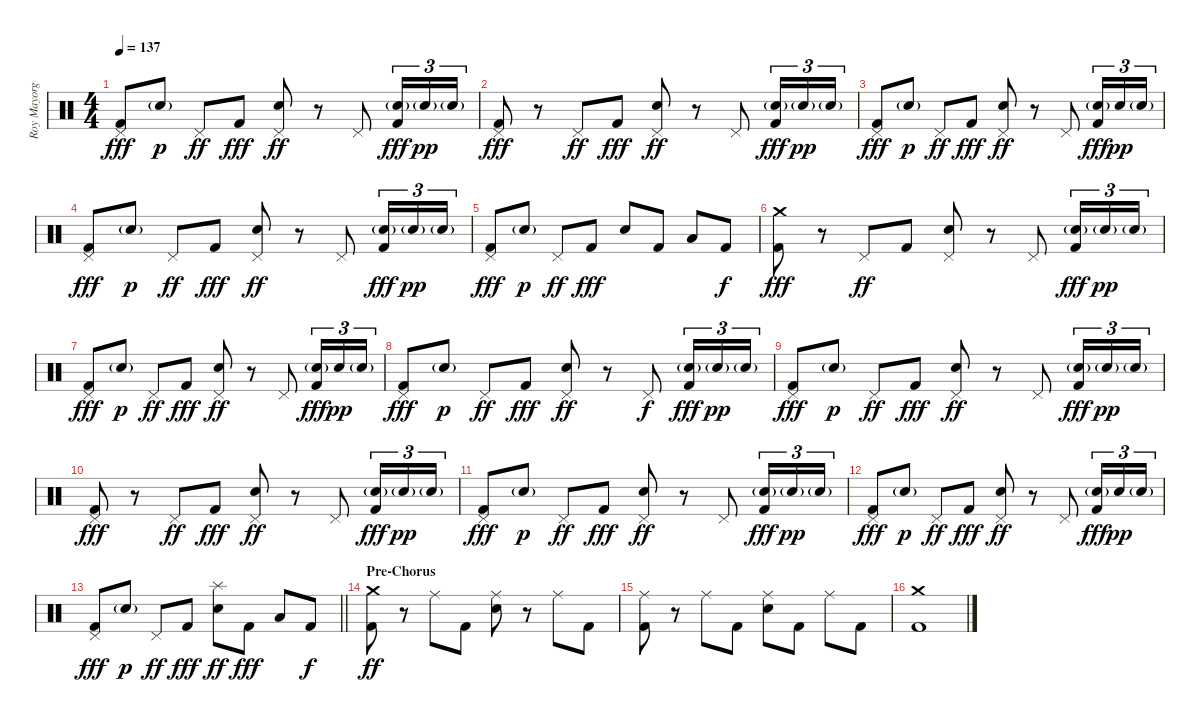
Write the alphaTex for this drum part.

\track ("Roy Mayorga (Drums)" "Roy Mayorg") {instrument percussion}
\staff {score}
\articulation defaults
\ts (4 4)
\tempo 137
\clef neutral
\ks c
("Pedal Hi-Hat (hit)" "Kick (hit) 2").8{dy fff} "Electric Snare (hit)"{g}.8{dy p} "Pedal Hi-Hat (hit)".8{dy ff} "Kick (hit) 2".8{dy fff} ("Pedal Hi-Hat (hit)" "Electric Snare (hit)").8{dy ff} r.8 "Pedal Hi-Hat (hit)".8 ("Electric Snare (hit)"{g} "Kick (hit) 2").16{tu (3 2) dy fff} "Electric Snare (hit)"{g}.16{tu (3 2) dy pp} "Electric Snare (hit)"{g}.16{tu (3 2)} |
("Pedal Hi-Hat (hit)" "Kick (hit) 2").8{dy fff} r.8 "Pedal Hi-Hat (hit)".8{dy ff} "Kick (hit) 2".8{dy fff} ("Pedal Hi-Hat (hit)" "Electric Snare (hit)").8{dy ff} r.8 "Pedal Hi-Hat (hit)".8 ("Electric Snare (hit)"{g} "Kick (hit) 2").16{tu (3 2) dy fff} "Electric Snare (hit)"{g}.16{tu (3 2) dy pp} "Electric Snare (hit)"{g}.16{tu (3 2)} |
("Pedal Hi-Hat (hit)" "Kick (hit) 2").8{dy fff} "Electric Snare (hit)"{g}.8{dy p} "Pedal Hi-Hat (hit)".8{dy ff} "Kick (hit) 2".8{dy fff} ("Pedal Hi-Hat (hit)" "Electric Snare (hit)").8{dy ff} r.8 "Pedal Hi-Hat (hit)".8 ("Electric Snare (hit)"{g} "Kick (hit) 2").16{tu (3 2) dy fff} "Electric Snare (hit)".16{tu (3 2) dy pp} "Electric Snare (hit)"{g}.16{tu (3 2)} |
("Pedal Hi-Hat (hit)" "Kick (hit) 2").8{dy fff} "Electric Snare (hit)"{g}.8{dy p} "Pedal Hi-Hat (hit)".8{dy ff} "Kick (hit) 2".8{dy fff} ("Pedal Hi-Hat (hit)" "Electric Snare (hit)").8{dy ff} r.8 "Pedal Hi-Hat (hit)".8 ("Electric Snare (hit)"{g} "Kick (hit) 2").16{tu (3 2) dy fff} "Electric Snare (hit)"{g}.16{tu (3 2) dy pp} "Electric Snare (hit)"{g}.16{tu (3 2)} |
("Pedal Hi-Hat (hit)" "Kick (hit) 2").8{dy fff} "Electric Snare (hit)"{g}.8{dy p} "Pedal Hi-Hat (hit)".8{dy ff} "Kick (hit) 2".8{dy fff} "Electric Snare (hit)".8 "Kick (hit) 2".8 "Low Tom (hit)".8 "Kick (hit) 2".8{dy f} |
("Crash medium (hit)" "Kick (hit) 2").8{dy fff} r.8 "Pedal Hi-Hat (hit)".8{dy ff} "Kick (hit) 2".8 ("Pedal Hi-Hat (hit)" "Electric Snare (hit)").8 r.8 "Pedal Hi-Hat (hit)".8 ("Electric Snare (hit)"{g} "Kick (hit) 2").16{tu (3 2) dy fff} "Electric Snare (hit)"{g}.16{tu (3 2) dy pp} "Electric Snare (hit)"{g}.16{tu (3 2)} |
("Pedal Hi-Hat (hit)" "Kick (hit) 2").8{dy fff} "Electric Snare (hit)"{g}.8{dy p} "Pedal Hi-Hat (hit)".8{dy ff} "Kick (hit) 2".8{dy fff} ("Pedal Hi-Hat (hit)" "Electric Snare (hit)").8{dy ff} r.8 "Pedal Hi-Hat (hit)".8 ("Electric Snare (hit)"{g} "Kick (hit) 2").16{tu (3 2) dy fff} "Electric Snare (hit)".16{tu (3 2) dy pp} "Electric Snare (hit)"{g}.16{tu (3 2)} |
("Pedal Hi-Hat (hit)" "Kick (hit) 2").8{dy fff} "Electric Snare (hit)"{g}.8{dy p} "Pedal Hi-Hat (hit)".8{dy ff} "Kick (hit) 2".8{dy fff} ("Pedal Hi-Hat (hit)" "Electric Snare (hit)").8{dy ff} r.8 "Pedal Hi-Hat (hit)".8{dy f} ("Electric Snare (hit)"{g} "Kick (hit) 2").16{tu (3 2) dy fff} "Electric Snare (hit)"{g}.16{tu (3 2) dy pp} "Electric Snare (hit)"{g}.16{tu (3 2)} |
("Pedal Hi-Hat (hit)" "Kick (hit) 2").8{dy fff} "Electric Snare (hit)"{g}.8{dy p} "Pedal Hi-Hat (hit)".8{dy ff} "Kick (hit) 2".8{dy fff} ("Pedal Hi-Hat (hit)" "Electric Snare (hit)").8{dy ff} r.8 "Pedal Hi-Hat (hit)".8 ("Electric Snare (hit)"{g} "Kick (hit) 2").16{tu (3 2) dy fff} "Electric Snare (hit)"{g}.16{tu (3 2) dy pp} "Electric Snare (hit)"{g}.16{tu (3 2)} |
("Pedal Hi-Hat (hit)" "Kick (hit) 2").8{dy fff} r.8 "Pedal Hi-Hat (hit)".8{dy ff} "Kick (hit) 2".8{dy fff} ("Pedal Hi-Hat (hit)" "Electric Snare (hit)").8{dy ff} r.8 "Pedal Hi-Hat (hit)".8 ("Electric Snare (hit)"{g} "Kick (hit) 2").16{tu (3 2) dy fff} "Electric Snare (hit)"{g}.16{tu (3 2) dy pp} "Electric Snare (hit)"{g}.16{tu (3 2)} |
("Pedal Hi-Hat (hit)" "Kick (hit) 2").8{dy fff} "Electric Snare (hit)"{g}.8{dy p} "Pedal Hi-Hat (hit)".8{dy ff} "Kick (hit) 2".8{dy fff} ("Pedal Hi-Hat (hit)" "Electric Snare (hit)").8{dy ff} r.8 "Pedal Hi-Hat (hit)".8 ("Electric Snare (hit)"{g} "Kick (hit) 2").16{tu (3 2) dy fff} "Electric Snare (hit)"{g}.16{tu (3 2) dy pp} "Electric Snare (hit)"{g}.16{tu (3 2)} |
("Pedal Hi-Hat (hit)" "Kick (hit) 2").8{dy fff} "Electric Snare (hit)"{g}.8{dy p} "Pedal Hi-Hat (hit)".8{dy ff} "Kick (hit) 2".8{dy fff} ("Pedal Hi-Hat (hit)" "Electric Snare (hit)").8{dy ff} r.8 "Pedal Hi-Hat (hit)".8 ("Electric Snare (hit)"{g} "Kick (hit) 2").16{tu (3 2) dy fff} "Electric Snare (hit)".16{tu (3 2) dy pp} "Electric Snare (hit)"{g}.16{tu (3 2)} |
\barLineRight lightlight
("Pedal Hi-Hat (hit)" "Kick (hit) 2").8{dy fff} "Electric Snare (hit)"{g}.8{dy p} "Pedal Hi-Hat (hit)".8{dy ff} "Kick (hit) 2".8{dy fff} ("Splash (hit)" "Electric Snare (hit)").8{dy ff} "Kick (hit) 2".8{dy fff} "Low Tom (hit)".8 "Kick (hit) 2".8{dy f} |
\section ("" "Pre-Chorus")
("Crash medium (hit)" "Kick (hit) 2").8{dy ff} r.8 "Ride (middle)".8 "Kick (hit) 2".8 ("Ride (middle)" "Electric Snare (hit)").8 r.8 "Ride (middle)".8 "Kick (hit) 2".8 |
("Ride (middle)" "Kick (hit) 2").8 r.8 "Ride (middle)".8 "Kick (hit) 2".8 ("Ride (middle)" "Electric Snare (hit)").8 "Kick (hit) 2".8 "Ride (middle)".8 "Kick (hit) 2".8 |
("Crash medium (hit)" "Kick (hit) 2").1
